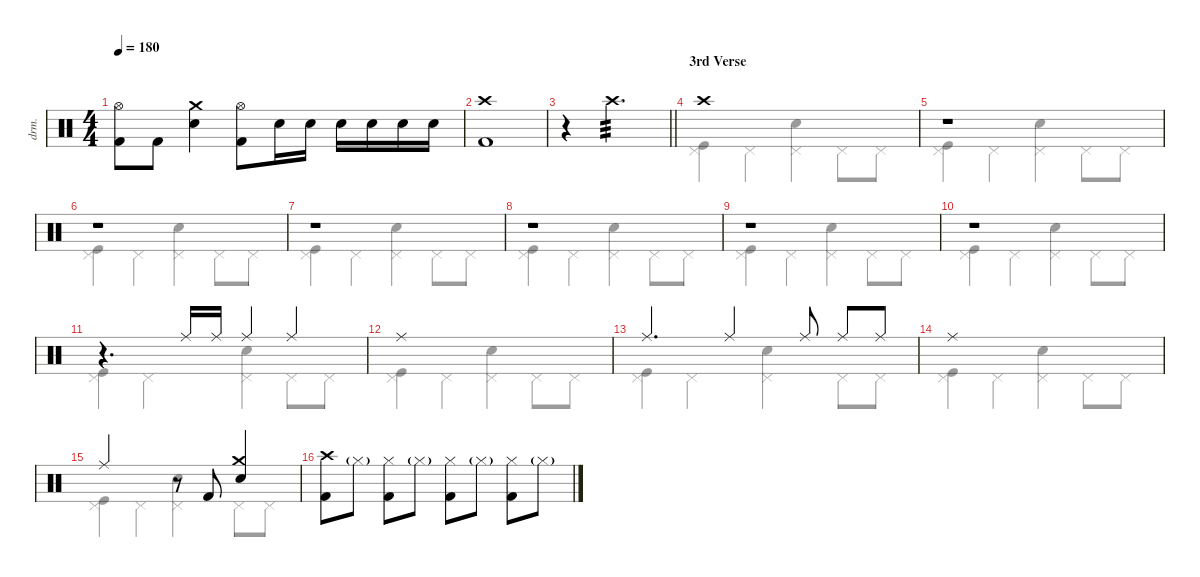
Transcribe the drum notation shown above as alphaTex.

\defaultSystemsLayout 4
\hideDynamics
\bracketExtendMode nobrackets
\otherSystemsTrackNameOrientation horizontal
\track ("Drums: Ritsu Tainaka" "drm.") {instrument percussion}
\staff {score}
\articulation defaults
\voice
\ts (4 4)
\tempo 180
\clef neutral
\ks c
("Hi-Hat (open)" "Kick (hit) 2").8{dy f beam Down} "Kick (hit) 2".8{beam Down} ("Crash medium (hit)" "Snare (hit) 2").4{beam Down} ("Hi-Hat (open)" "Kick (hit) 2").8{beam Down} "Snare (hit) 2".16{beam Down} "Snare (hit) 2".16{beam Down} "Snare (hit) 2".16{beam Down} "Snare (hit) 2".16{beam Down} "Snare (hit) 2".16{beam Down} "Snare (hit) 2".16{beam Down} |
("Crash high (hit)" "Kick (hit) 2").1{beam Down} |
\barLineRight lightlight
r.4{beam Down} "Crash high (hit)".2{d tp 3 beam Down} |
\section ("" "3rd Verse")
"Crash high (hit)".1{beam Up} |
r.1{beam Up} |
r.1{beam Up} |
r.1{beam Up} |
r.1{beam Up} |
r.1{beam Up} |
r.1{beam Up} |
r.4{d beam Up} "Ride (middle)".16{beam Up} "Ride (middle)".16{beam Up} "Ride (middle)".4{beam Up} "Ride (middle)".4{beam Up} |
"Ride (middle)".1{beam Up} |
"Ride (middle)".4{d beam Up} "Ride (middle)".4{beam Up} "Ride (middle)".8{beam Up} "Ride (middle)".8{beam Up} "Ride (middle)".8{beam Up} |
"Ride (middle)".1{beam Up} |
"Ride (middle)".2{beam Up} r.8{beam Up} "Kick (hit) 2".8{beam Up} ("Crash medium (hit)" "Snare (hit) 2").4{beam Up} |
("Crash high (hit)" "Kick (hit) 2").8{beam Down} "Hi-Hat (closed)"{g}.8{dy mf beam Down} ("Hi-Hat (closed)" "Kick (hit) 2").8{dy f beam Down} "Hi-Hat (closed)"{g}.8{dy mf beam Down} ("Hi-Hat (closed)" "Kick (hit) 2").8{dy f beam Down} "Hi-Hat (closed)"{g}.8{dy mf beam Down} ("Hi-Hat (closed)" "Kick (hit) 2").8{dy f beam Down} "Hi-Hat (closed)"{g}.8{dy mf beam Down}
\voice
\clef neutral
\ottava regular
\simile none
\ks c
|
|
\barLineRight lightlight
|
("Pedal Hi-Hat (hit)" "Kick (hit)").4{dy mp beam Down} "Pedal Hi-Hat (hit)".4{beam Down} ("Pedal Hi-Hat (hit)" "Snare (hit) 2").4{beam Down} "Pedal Hi-Hat (hit)".8{beam Down} "Pedal Hi-Hat (hit)".8{beam Down} |
("Pedal Hi-Hat (hit)" "Kick (hit)").4{beam Down} "Pedal Hi-Hat (hit)".4{beam Down} ("Pedal Hi-Hat (hit)" "Snare (hit) 2").4{beam Down} "Pedal Hi-Hat (hit)".8{beam Down} "Pedal Hi-Hat (hit)".8{beam Down} |
("Pedal Hi-Hat (hit)" "Kick (hit)").4{beam Down} "Pedal Hi-Hat (hit)".4{beam Down} ("Pedal Hi-Hat (hit)" "Snare (hit) 2").4{beam Down} "Pedal Hi-Hat (hit)".8{beam Down} "Pedal Hi-Hat (hit)".8{beam Down} |
("Pedal Hi-Hat (hit)" "Kick (hit)").4{beam Down} "Pedal Hi-Hat (hit)".4{beam Down} ("Pedal Hi-Hat (hit)" "Snare (hit) 2").4{beam Down} "Pedal Hi-Hat (hit)".8{beam Down} "Pedal Hi-Hat (hit)".8{beam Down} |
("Pedal Hi-Hat (hit)" "Kick (hit)").4{beam Down} "Pedal Hi-Hat (hit)".4{beam Down} ("Pedal Hi-Hat (hit)" "Snare (hit) 2").4{beam Down} "Pedal Hi-Hat (hit)".8{beam Down} "Pedal Hi-Hat (hit)".8{beam Down} |
("Pedal Hi-Hat (hit)" "Kick (hit)").4{beam Down} "Pedal Hi-Hat (hit)".4{beam Down} ("Pedal Hi-Hat (hit)" "Snare (hit) 2").4{beam Down} "Pedal Hi-Hat (hit)".8{beam Down} "Pedal Hi-Hat (hit)".8{beam Down} |
("Pedal Hi-Hat (hit)" "Kick (hit)").4{beam Down} "Pedal Hi-Hat (hit)".4{beam Down} ("Pedal Hi-Hat (hit)" "Snare (hit) 2").4{beam Down} "Pedal Hi-Hat (hit)".8{beam Down} "Pedal Hi-Hat (hit)".8{beam Down} |
("Pedal Hi-Hat (hit)" "Kick (hit)").4{beam Down} "Pedal Hi-Hat (hit)".4{beam Down} ("Pedal Hi-Hat (hit)" "Snare (hit) 2").4{beam Down} "Pedal Hi-Hat (hit)".8{beam Down} "Pedal Hi-Hat (hit)".8{beam Down} |
("Pedal Hi-Hat (hit)" "Kick (hit)").4{beam Down} "Pedal Hi-Hat (hit)".4{beam Down} ("Pedal Hi-Hat (hit)" "Snare (hit) 2").4{beam Down} "Pedal Hi-Hat (hit)".8{beam Down} "Pedal Hi-Hat (hit)".8{beam Down} |
("Pedal Hi-Hat (hit)" "Kick (hit)").4{beam Down} "Pedal Hi-Hat (hit)".4{beam Down} ("Pedal Hi-Hat (hit)" "Snare (hit) 2").4{beam Down} "Pedal Hi-Hat (hit)".8{beam Down} "Pedal Hi-Hat (hit)".8{beam Down} |
("Pedal Hi-Hat (hit)" "Kick (hit)").4{beam Down} "Pedal Hi-Hat (hit)".4{beam Down} ("Pedal Hi-Hat (hit)" "Snare (hit) 2").4{beam Down} "Pedal Hi-Hat (hit)".8{beam Down} "Pedal Hi-Hat (hit)".8{beam Down} |
("Pedal Hi-Hat (hit)" "Kick (hit)").4{beam Down} "Pedal Hi-Hat (hit)".4{beam Down} ("Pedal Hi-Hat (hit)" "Snare (hit) 2").4{beam Down} "Pedal Hi-Hat (hit)".8{beam Down} "Pedal Hi-Hat (hit)".8{beam Down} |
